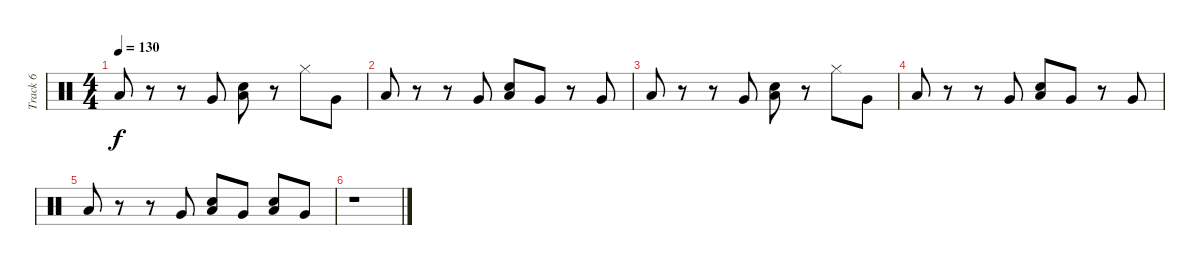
\track ("Track 6" "Track 6") {instrument percussion}
\staff {score}
\articulation defaults
\ts (4 4)
\tempo 130
\clef neutral
\ks c "Low Floor Tom (hit)".8{dy f}
r.8 r.8 "Very Low Tom (hit)".8 ("Low Tom (hit)" "Snare (hit) 2").8 r.8 "Hi-Hat (closed)".8 "Very Low Tom (hit)".8 |
"Low Floor Tom (hit)".8 r.8 r.8 "Very Low Tom (hit)".8 ("Low Tom (hit)" "Snare (hit) 2").8 "Very Low Tom (hit)".8 r.8 "Very Low Tom (hit)".8 |
"Low Floor Tom (hit)".8 r.8 r.8 "Very Low Tom (hit)".8 ("Low Tom (hit)" "Snare (hit) 2").8 r.8 "Hi-Hat (closed)".8 "Very Low Tom (hit)".8 |
"Low Floor Tom (hit)".8 r.8 r.8 "Very Low Tom (hit)".8 ("Low Tom (hit)" "Snare (hit) 2").8 "Very Low Tom (hit)".8 r.8 "Very Low Tom (hit)".8 |
"Low Floor Tom (hit)".8 r.8 r.8 "Very Low Tom (hit)".8 ("Low Tom (hit)" "Snare (hit) 2").8 "Very Low Tom (hit)".8 ("Low Tom (hit)" "Snare (hit) 2").8 "Very Low Tom (hit)".8 |
r.1
